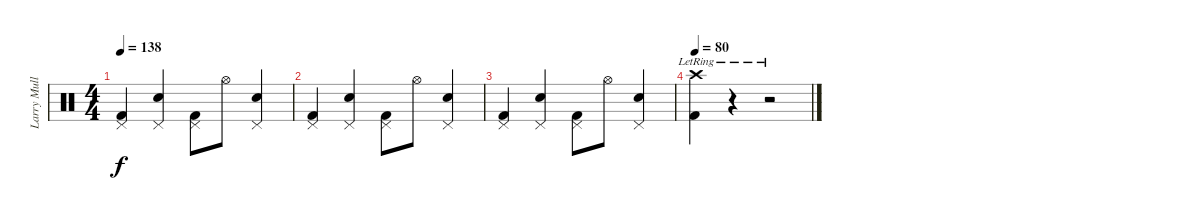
\track ("Larry Mullen" "Larry Mull") {instrument percussion}
\staff {score}
\articulation defaults
\ts (4 4)
\tempo 138
\clef neutral
\ks c
("Kick (hit) 2" "Pedal Hi-Hat (hit)").4{dy f} ("Snare (hit) 2" "Pedal Hi-Hat (hit)").4 ("Kick (hit) 2" "Pedal Hi-Hat (hit)").8 "Hi-Hat (open)".8 ("Snare (hit) 2" "Pedal Hi-Hat (hit)").4 |
("Kick (hit) 2" "Pedal Hi-Hat (hit)").4 ("Snare (hit) 2" "Pedal Hi-Hat (hit)").4 ("Kick (hit) 2" "Pedal Hi-Hat (hit)").8 "Hi-Hat (open)".8 ("Snare (hit) 2" "Pedal Hi-Hat (hit)").4 |
("Kick (hit) 2" "Pedal Hi-Hat (hit)").4 ("Snare (hit) 2" "Pedal Hi-Hat (hit)").4 ("Kick (hit) 2" "Pedal Hi-Hat (hit)").8 "Hi-Hat (open)".8 ("Snare (hit) 2" "Pedal Hi-Hat (hit)").4 |
\tempo 80
("Kick (hit) 2" "Crash high (hit)"{lr}).4 r.4 r.2
